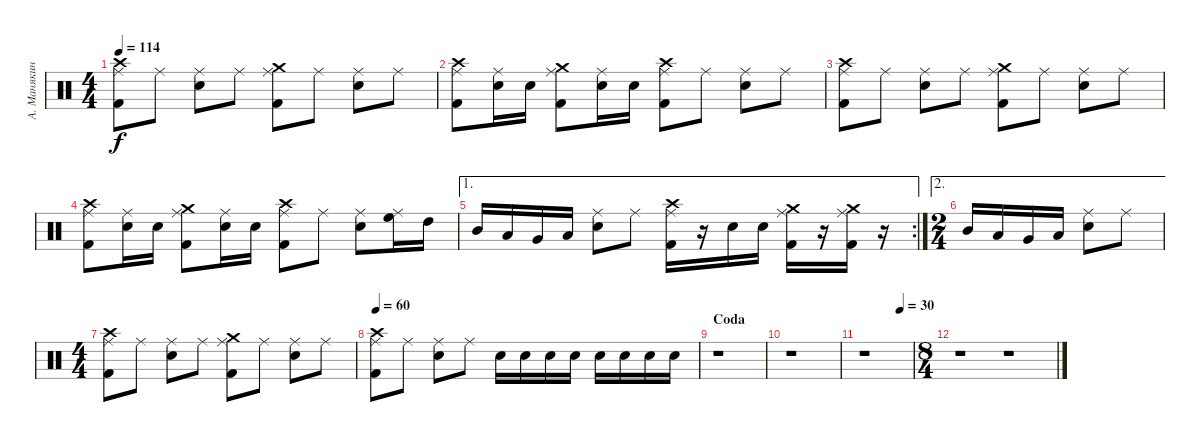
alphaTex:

\track ("А. Манякин" "А. Манякин") {instrument percussion}
\staff {score}
\articulation defaults
\ts (4 4)
\tempo 114
\clef neutral
\ks c
("Kick (hit) 2" "Crash high (hit)" "Ride (middle)").8{dy f} "Ride (middle)".8 ("Electric Snare (hit)" "Ride (middle)").8 "Ride (middle)".8 ("Kick (hit) 2" "Crash medium (hit)" "Ride (middle)").8 "Ride (middle)".8 ("Electric Snare (hit)" "Ride (middle)").8 "Ride (middle)".8 |
("Kick (hit) 2" "Crash high (hit)" "Ride (middle)").8 ("Electric Snare (hit)" "Ride (middle)").16 "Electric Snare (hit)".16 ("Kick (hit) 2" "Crash medium (hit)" "Ride (middle)").8 ("Electric Snare (hit)" "Ride (middle)").16 "Electric Snare (hit)".16 ("Kick (hit) 2" "Crash high (hit)" "Ride (middle)").8 "Ride (middle)".8 ("Electric Snare (hit)" "Ride (middle)").8 "Ride (middle)".8 |
("Kick (hit) 2" "Crash high (hit)" "Ride (middle)").8 "Ride (middle)".8 ("Electric Snare (hit)" "Ride (middle)").8 "Ride (middle)".8 ("Kick (hit) 2" "Crash medium (hit)" "Ride (middle)").8 "Ride (middle)".8 ("Electric Snare (hit)" "Ride (middle)").8 "Ride (middle)".8 |
("Kick (hit) 2" "Crash high (hit)" "Ride (middle)").8 ("Electric Snare (hit)" "Ride (middle)").16 "Electric Snare (hit)".16 ("Kick (hit) 2" "Crash medium (hit)" "Ride (middle)").8 ("Electric Snare (hit)" "Ride (middle)").16 "Electric Snare (hit)".16 ("Kick (hit) 2" "Crash high (hit)" "Ride (middle)").8 "Ride (middle)".8 ("Electric Snare (hit)" "Ride (middle)").8 ("High Floor Tom (hit)" "Ride (middle)").16 "High Tom (hit)".16 |
\ae 1
\rc 2 "Mid Tom (hit)".16 "Low Tom (hit)".16 "Very Low Tom (hit)".16 "Low Floor Tom (hit)".16
("Electric Snare (hit)" "Ride (middle)").8 "Ride (middle)".8 ("Kick (hit) 2" "Crash high (hit)" "Ride (middle)").16 r.16 "Electric Snare (hit)".16 "Electric Snare (hit)".16 ("Kick (hit) 2" "Crash medium (hit)" "Ride (middle)").16 r.16 ("Kick (hit) 2" "Crash medium (hit)" "Ride (middle)").16 r.16 |
\ae 2
\ts (2 4)
"Mid Tom (hit)".16 "Low Tom (hit)".16 "Very Low Tom (hit)".16 "Low Floor Tom (hit)".16 ("Electric Snare (hit)" "Ride (middle)").8 "Ride (middle)".8 |
\ts (4 4)
("Kick (hit) 2" "Crash high (hit)" "Ride (middle)").8 "Ride (middle)".8 ("Electric Snare (hit)" "Ride (middle)").8 "Ride (middle)".8 ("Kick (hit) 2" "Crash medium (hit)" "Ride (middle)").8 "Ride (middle)".8 ("Electric Snare (hit)" "Ride (middle)").8 "Ride (middle)".8 |
\tempo 60
("Kick (hit) 2" "Crash high (hit)" "Ride (middle)").8 "Ride (middle)".8 ("Electric Snare (hit)" "Ride (middle)").8 "Ride (middle)".8 "Electric Snare (hit)".16 "Electric Snare (hit)".16 "Electric Snare (hit)".16 "Electric Snare (hit)".16 "Electric Snare (hit)".16 "Electric Snare (hit)".16 "Electric Snare (hit)".16 "Electric Snare (hit)".16 |
\section ("" "Coda")
r.1 |
r.1 |
\tempo (30 0.75)
r.1 |
\ts (8 4)
r.1 r.1
